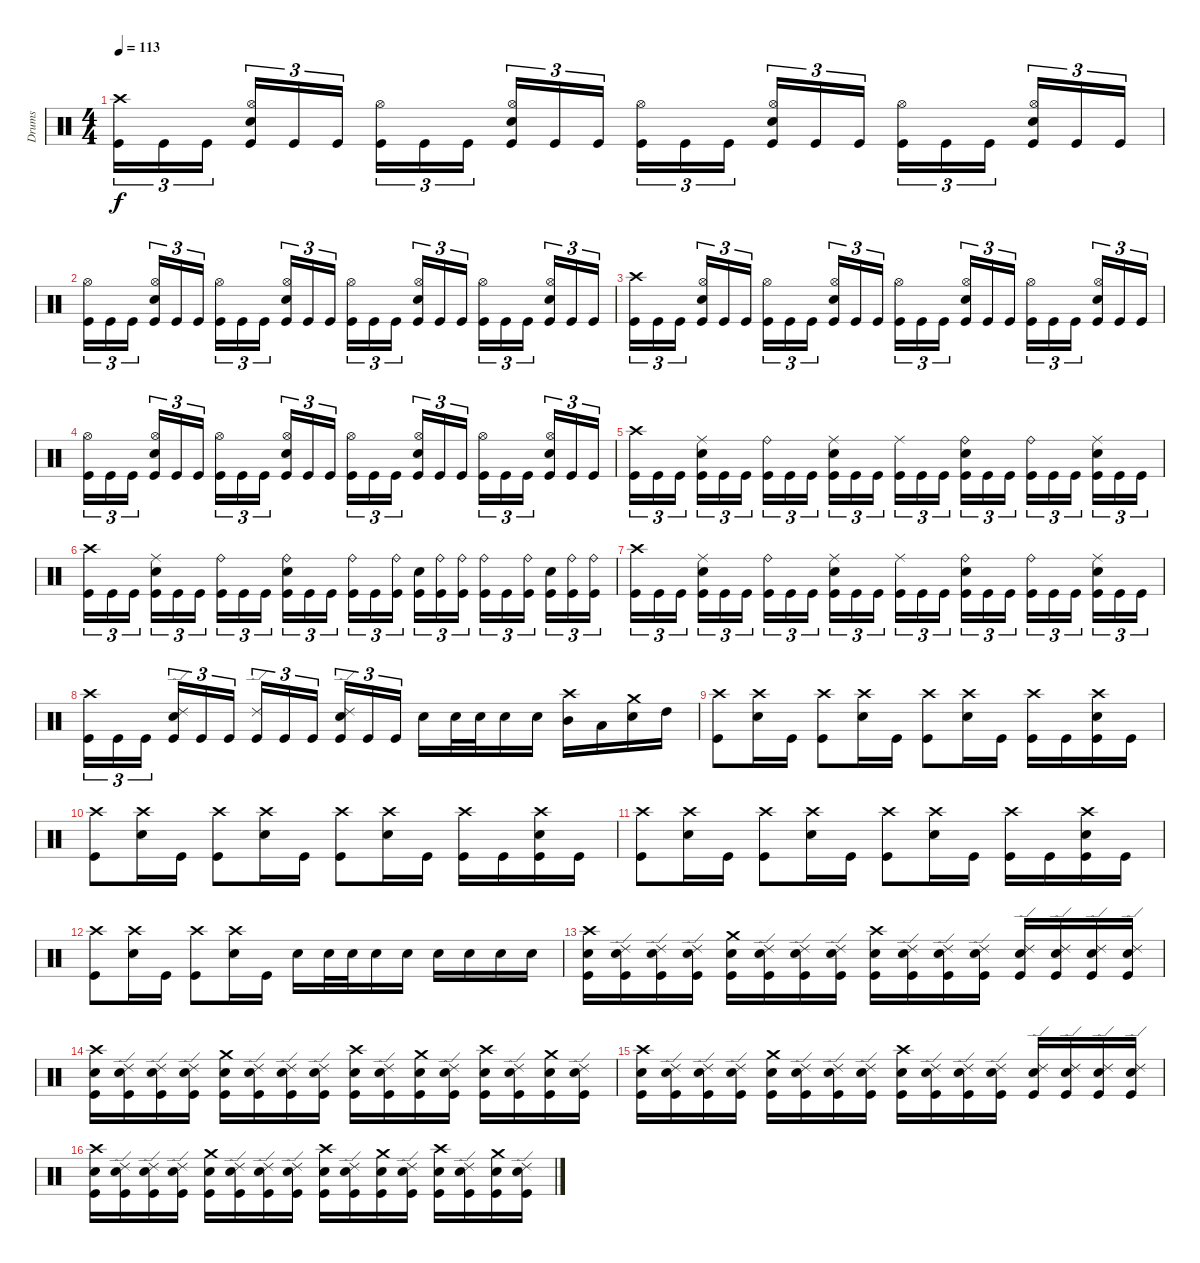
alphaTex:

\track ("Drums" "Drums") {instrument percussion}
\staff {score}
\articulation defaults
\ts (4 4)
\tempo 113
\clef neutral
\ks c
("Crash high (hit)" "Kick (hit)").16{tu (3 2) dy f} "Kick (hit)".16{tu (3 2)} "Kick (hit)".16{tu (3 2) beam splitsecondary} ("Hi-Hat (open)" "Electric Snare (hit)" "Kick (hit)").16{tu (3 2)} "Kick (hit)".16{tu (3 2)} "Kick (hit)".16{tu (3 2)} ("Hi-Hat (open)" "Kick (hit)").16{tu (3 2)} "Kick (hit)".16{tu (3 2)} "Kick (hit)".16{tu (3 2) beam splitsecondary} ("Hi-Hat (open)" "Electric Snare (hit)" "Kick (hit)").16{tu (3 2)} "Kick (hit)".16{tu (3 2)} "Kick (hit)".16{tu (3 2)} ("Hi-Hat (open)" "Kick (hit)").16{tu (3 2)} "Kick (hit)".16{tu (3 2)} "Kick (hit)".16{tu (3 2) beam splitsecondary} ("Hi-Hat (open)" "Electric Snare (hit)" "Kick (hit)").16{tu (3 2)} "Kick (hit)".16{tu (3 2)} "Kick (hit)".16{tu (3 2)} ("Hi-Hat (open)" "Kick (hit)").16{tu (3 2)} "Kick (hit)".16{tu (3 2)} "Kick (hit)".16{tu (3 2) beam splitsecondary} ("Hi-Hat (open)" "Electric Snare (hit)" "Kick (hit)").16{tu (3 2)} "Kick (hit)".16{tu (3 2)} "Kick (hit)".16{tu (3 2)} |
("Hi-Hat (open)" "Kick (hit)").16{tu (3 2)} "Kick (hit)".16{tu (3 2)} "Kick (hit)".16{tu (3 2) beam splitsecondary} ("Hi-Hat (open)" "Electric Snare (hit)" "Kick (hit)").16{tu (3 2)} "Kick (hit)".16{tu (3 2)} "Kick (hit)".16{tu (3 2)} ("Hi-Hat (open)" "Kick (hit)").16{tu (3 2)} "Kick (hit)".16{tu (3 2)} "Kick (hit)".16{tu (3 2) beam splitsecondary} ("Hi-Hat (open)" "Electric Snare (hit)" "Kick (hit)").16{tu (3 2)} "Kick (hit)".16{tu (3 2)} "Kick (hit)".16{tu (3 2)} ("Hi-Hat (open)" "Kick (hit)").16{tu (3 2)} "Kick (hit)".16{tu (3 2)} "Kick (hit)".16{tu (3 2) beam splitsecondary} ("Hi-Hat (open)" "Electric Snare (hit)" "Kick (hit)").16{tu (3 2)} "Kick (hit)".16{tu (3 2)} "Kick (hit)".16{tu (3 2)} ("Hi-Hat (open)" "Kick (hit)").16{tu (3 2)} "Kick (hit)".16{tu (3 2)} "Kick (hit)".16{tu (3 2) beam splitsecondary} ("Hi-Hat (open)" "Electric Snare (hit)" "Kick (hit)").16{tu (3 2)} "Kick (hit)".16{tu (3 2)} "Kick (hit)".16{tu (3 2)} |
("Crash high (hit)" "Kick (hit)").16{tu (3 2)} "Kick (hit)".16{tu (3 2)} "Kick (hit)".16{tu (3 2) beam splitsecondary} ("Hi-Hat (open)" "Electric Snare (hit)" "Kick (hit)").16{tu (3 2)} "Kick (hit)".16{tu (3 2)} "Kick (hit)".16{tu (3 2)} ("Hi-Hat (open)" "Kick (hit)").16{tu (3 2)} "Kick (hit)".16{tu (3 2)} "Kick (hit)".16{tu (3 2) beam splitsecondary} ("Hi-Hat (open)" "Electric Snare (hit)" "Kick (hit)").16{tu (3 2)} "Kick (hit)".16{tu (3 2)} "Kick (hit)".16{tu (3 2)} ("Hi-Hat (open)" "Kick (hit)").16{tu (3 2)} "Kick (hit)".16{tu (3 2)} "Kick (hit)".16{tu (3 2) beam splitsecondary} ("Hi-Hat (open)" "Electric Snare (hit)" "Kick (hit)").16{tu (3 2)} "Kick (hit)".16{tu (3 2)} "Kick (hit)".16{tu (3 2)} ("Hi-Hat (open)" "Kick (hit)").16{tu (3 2)} "Kick (hit)".16{tu (3 2)} "Kick (hit)".16{tu (3 2) beam splitsecondary} ("Hi-Hat (open)" "Electric Snare (hit)" "Kick (hit)").16{tu (3 2)} "Kick (hit)".16{tu (3 2)} "Kick (hit)".16{tu (3 2)} |
("Hi-Hat (open)" "Kick (hit)").16{tu (3 2)} "Kick (hit)".16{tu (3 2)} "Kick (hit)".16{tu (3 2) beam splitsecondary} ("Hi-Hat (open)" "Electric Snare (hit)" "Kick (hit)").16{tu (3 2)} "Kick (hit)".16{tu (3 2)} "Kick (hit)".16{tu (3 2)} ("Hi-Hat (open)" "Kick (hit)").16{tu (3 2)} "Kick (hit)".16{tu (3 2)} "Kick (hit)".16{tu (3 2) beam splitsecondary} ("Hi-Hat (open)" "Electric Snare (hit)" "Kick (hit)").16{tu (3 2)} "Kick (hit)".16{tu (3 2)} "Kick (hit)".16{tu (3 2)} ("Hi-Hat (open)" "Kick (hit)").16{tu (3 2)} "Kick (hit)".16{tu (3 2)} "Kick (hit)".16{tu (3 2) beam splitsecondary} ("Hi-Hat (open)" "Electric Snare (hit)" "Kick (hit)").16{tu (3 2)} "Kick (hit)".16{tu (3 2)} "Kick (hit)".16{tu (3 2)} ("Hi-Hat (open)" "Kick (hit)").16{tu (3 2)} "Kick (hit)".16{tu (3 2)} "Kick (hit)".16{tu (3 2) beam splitsecondary} ("Hi-Hat (open)" "Electric Snare (hit)" "Kick (hit)").16{tu (3 2)} "Kick (hit)".16{tu (3 2)} "Kick (hit)".16{tu (3 2)} |
("Crash high (hit)" "Kick (hit)").16{tu (3 2)} "Kick (hit)".16{tu (3 2)} "Kick (hit)".16{tu (3 2) beam splitsecondary} ("Ride (middle)" "Electric Snare (hit)" "Kick (hit)").16{tu (3 2)} "Kick (hit)".16{tu (3 2)} "Kick (hit)".16{tu (3 2)} ("Ride (bell)" "Kick (hit)").16{tu (3 2)} "Kick (hit)".16{tu (3 2)} "Kick (hit)".16{tu (3 2) beam splitsecondary} ("Ride (middle)" "Electric Snare (hit)" "Kick (hit)").16{tu (3 2)} "Kick (hit)".16{tu (3 2)} "Kick (hit)".16{tu (3 2)} ("Ride (middle)" "Kick (hit)").16{tu (3 2)} "Kick (hit)".16{tu (3 2)} "Kick (hit)".16{tu (3 2) beam splitsecondary} ("Ride (bell)" "Electric Snare (hit)" "Kick (hit)").16{tu (3 2)} "Kick (hit)".16{tu (3 2)} "Kick (hit)".16{tu (3 2)} ("Ride (bell)" "Kick (hit)").16{tu (3 2)} "Kick (hit)".16{tu (3 2)} "Kick (hit)".16{tu (3 2) beam splitsecondary} ("Ride (middle)" "Electric Snare (hit)" "Kick (hit)").16{tu (3 2)} "Kick (hit)".16{tu (3 2)} "Kick (hit)".16{tu (3 2)} |
("Crash high (hit)" "Kick (hit)").16{tu (3 2)} "Kick (hit)".16{tu (3 2)} "Kick (hit)".16{tu (3 2) beam splitsecondary} ("Ride (middle)" "Electric Snare (hit)" "Kick (hit)").16{tu (3 2)} "Kick (hit)".16{tu (3 2)} "Kick (hit)".16{tu (3 2)} ("Ride (bell)" "Kick (hit)").16{tu (3 2)} "Kick (hit)".16{tu (3 2)} "Kick (hit)".16{tu (3 2) beam splitsecondary} ("Ride (bell)" "Electric Snare (hit)" "Kick (hit)").16{tu (3 2)} "Kick (hit)".16{tu (3 2)} "Kick (hit)".16{tu (3 2)} ("Ride (bell)" "Kick (hit)").16{tu (3 2)} "Kick (hit)".16{tu (3 2)} ("Ride (bell)" "Kick (hit)").16{tu (3 2) beam splitsecondary} ("Electric Snare (hit)" "Kick (hit)").16{tu (3 2)} ("Ride (bell)" "Kick (hit)").16{tu (3 2)} ("Ride (bell)" "Kick (hit)").16{tu (3 2)} ("Ride (bell)" "Kick (hit)").16{tu (3 2)} "Kick (hit)".16{tu (3 2)} ("Ride (bell)" "Kick (hit)").16{tu (3 2) beam splitsecondary} ("Electric Snare (hit)" "Kick (hit)").16{tu (3 2)} ("Ride (bell)" "Kick (hit)").16{tu (3 2)} ("Ride (bell)" "Kick (hit)").16{tu (3 2)} |
("Crash high (hit)" "Kick (hit)").16{tu (3 2)} "Kick (hit)".16{tu (3 2)} "Kick (hit)".16{tu (3 2) beam splitsecondary} ("Ride (middle)" "Electric Snare (hit)" "Kick (hit)").16{tu (3 2)} "Kick (hit)".16{tu (3 2)} "Kick (hit)".16{tu (3 2)} ("Ride (bell)" "Kick (hit)").16{tu (3 2)} "Kick (hit)".16{tu (3 2)} "Kick (hit)".16{tu (3 2) beam splitsecondary} ("Ride (middle)" "Electric Snare (hit)" "Kick (hit)").16{tu (3 2)} "Kick (hit)".16{tu (3 2)} "Kick (hit)".16{tu (3 2)} ("Ride (middle)" "Kick (hit)").16{tu (3 2)} "Kick (hit)".16{tu (3 2)} "Kick (hit)".16{tu (3 2) beam splitsecondary} ("Ride (bell)" "Electric Snare (hit)" "Kick (hit)").16{tu (3 2)} "Kick (hit)".16{tu (3 2)} "Kick (hit)".16{tu (3 2)} ("Ride (bell)" "Kick (hit)").16{tu (3 2)} "Kick (hit)".16{tu (3 2)} "Kick (hit)".16{tu (3 2) beam splitsecondary} ("Ride (middle)" "Electric Snare (hit)" "Kick (hit)").16{tu (3 2)} "Kick (hit)".16{tu (3 2)} "Kick (hit)".16{tu (3 2)} |
("Crash high (hit)" "Kick (hit)").16{tu (3 2)} "Kick (hit)".16{tu (3 2)} "Kick (hit)".16{tu (3 2) beam splitsecondary} ("Ride (edge) 2" "Electric Snare (hit)" "Kick (hit)").16{tu (3 2)} "Kick (hit)".16{tu (3 2)} "Kick (hit)".16{tu (3 2)} ("Ride (edge) 2" "Kick (hit)").16{tu (3 2)} "Kick (hit)".16{tu (3 2)} "Kick (hit)".16{tu (3 2) beam splitsecondary} ("Ride (edge) 2" "Electric Snare (hit)" "Kick (hit)").16{tu (3 2)} "Kick (hit)".16{tu (3 2)} "Kick (hit)".16{tu (3 2)} "Electric Snare (hit)".16 "Electric Snare (hit)".32 "Electric Snare (hit)".32 "Electric Snare (hit)".16 "Electric Snare (hit)".16 ("Crash high (hit)" "Mid Tom (hit)").16 "Low Tom (hit)".16 ("Crash medium (hit)" "Electric Snare (hit)").16 "High Tom (hit)".16 |
("Crash high (hit)" "Kick (hit)").8 ("Crash high (hit)" "Electric Snare (hit)").16 "Kick (hit)".16 ("Crash high (hit)" "Kick (hit)").8 ("Crash high (hit)" "Electric Snare (hit)").16 "Kick (hit)".16 ("Crash high (hit)" "Kick (hit)").8 ("Crash high (hit)" "Electric Snare (hit)").16 "Kick (hit)".16 ("Crash high (hit)" "Kick (hit)").16 "Kick (hit)".16 ("Crash high (hit)" "Electric Snare (hit)" "Kick (hit)").16 "Kick (hit)".16 |
("Crash high (hit)" "Kick (hit)").8 ("Crash high (hit)" "Electric Snare (hit)").16 "Kick (hit)".16 ("Crash high (hit)" "Kick (hit)").8 ("Crash high (hit)" "Electric Snare (hit)").16 "Kick (hit)".16 ("Crash high (hit)" "Kick (hit)").8 ("Crash high (hit)" "Electric Snare (hit)").16 "Kick (hit)".16 ("Crash high (hit)" "Kick (hit)").16 "Kick (hit)".16 ("Crash high (hit)" "Electric Snare (hit)" "Kick (hit)").16 "Kick (hit)".16 |
("Crash high (hit)" "Kick (hit)").8 ("Crash high (hit)" "Electric Snare (hit)").16 "Kick (hit)".16 ("Crash high (hit)" "Kick (hit)").8 ("Crash high (hit)" "Electric Snare (hit)").16 "Kick (hit)".16 ("Crash high (hit)" "Kick (hit)").8 ("Crash high (hit)" "Electric Snare (hit)").16 "Kick (hit)".16 ("Crash high (hit)" "Kick (hit)").16 "Kick (hit)".16 ("Crash high (hit)" "Electric Snare (hit)" "Kick (hit)").16 "Kick (hit)".16 |
("Crash high (hit)" "Kick (hit)").8 ("Crash high (hit)" "Electric Snare (hit)").16 "Kick (hit)".16 ("Crash high (hit)" "Kick (hit)").8 ("Crash high (hit)" "Electric Snare (hit)").16 "Kick (hit)".16 "Electric Snare (hit)".16 "Electric Snare (hit)".32 "Electric Snare (hit)".32 "Electric Snare (hit)".16 "Electric Snare (hit)".16 "Electric Snare (hit)".16 "Electric Snare (hit)".16 "Electric Snare (hit)".16 "Electric Snare (hit)".16 |
("Crash high (hit)" "Electric Snare (hit)" "Kick (hit)").16 ("Ride (edge) 2" "Electric Snare (hit)" "Kick (hit)").16 ("Ride (edge) 2" "Electric Snare (hit)" "Kick (hit)").16 ("Ride (edge) 2" "Electric Snare (hit)" "Kick (hit)").16 ("Crash medium (hit)" "Electric Snare (hit)" "Kick (hit)").16 ("Ride (edge) 2" "Electric Snare (hit)" "Kick (hit)").16 ("Ride (edge) 2" "Electric Snare (hit)" "Kick (hit)").16 ("Ride (edge) 2" "Electric Snare (hit)" "Kick (hit)").16 ("Crash high (hit)" "Electric Snare (hit)" "Kick (hit)").16 ("Ride (edge) 2" "Electric Snare (hit)" "Kick (hit)").16 ("Ride (edge) 2" "Electric Snare (hit)" "Kick (hit)").16 ("Ride (edge) 2" "Electric Snare (hit)" "Kick (hit)").16 ("Ride (edge) 2" "Electric Snare (hit)" "Kick (hit)").16 ("Ride (edge) 2" "Electric Snare (hit)" "Kick (hit)").16 ("Ride (edge) 2" "Electric Snare (hit)" "Kick (hit)").16 ("Ride (edge) 2" "Electric Snare (hit)" "Kick (hit)").16 |
("Crash high (hit)" "Electric Snare (hit)" "Kick (hit)").16 ("Ride (edge) 2" "Electric Snare (hit)" "Kick (hit)").16 ("Ride (edge) 2" "Electric Snare (hit)" "Kick (hit)").16 ("Ride (edge) 2" "Electric Snare (hit)" "Kick (hit)").16 ("Crash medium (hit)" "Electric Snare (hit)" "Kick (hit)").16 ("Ride (edge) 2" "Electric Snare (hit)" "Kick (hit)").16 ("Ride (edge) 2" "Electric Snare (hit)" "Kick (hit)").16 ("Ride (edge) 2" "Electric Snare (hit)" "Kick (hit)").16 ("Crash high (hit)" "Electric Snare (hit)" "Kick (hit)").16 ("Ride (edge) 2" "Electric Snare (hit)" "Kick (hit)").16 ("Crash medium (hit)" "Electric Snare (hit)" "Kick (hit)").16 ("Ride (edge) 2" "Electric Snare (hit)" "Kick (hit)").16 ("Crash high (hit)" "Electric Snare (hit)" "Kick (hit)").16 ("Ride (edge) 2" "Electric Snare (hit)" "Kick (hit)").16 ("Crash medium (hit)" "Electric Snare (hit)" "Kick (hit)").16 ("Ride (edge) 2" "Electric Snare (hit)" "Kick (hit)").16 |
("Crash high (hit)" "Electric Snare (hit)" "Kick (hit)").16 ("Ride (edge) 2" "Electric Snare (hit)" "Kick (hit)").16 ("Ride (edge) 2" "Electric Snare (hit)" "Kick (hit)").16 ("Ride (edge) 2" "Electric Snare (hit)" "Kick (hit)").16 ("Crash medium (hit)" "Electric Snare (hit)" "Kick (hit)").16 ("Ride (edge) 2" "Electric Snare (hit)" "Kick (hit)").16 ("Ride (edge) 2" "Electric Snare (hit)" "Kick (hit)").16 ("Ride (edge) 2" "Electric Snare (hit)" "Kick (hit)").16 ("Crash high (hit)" "Electric Snare (hit)" "Kick (hit)").16 ("Ride (edge) 2" "Electric Snare (hit)" "Kick (hit)").16 ("Ride (edge) 2" "Electric Snare (hit)" "Kick (hit)").16 ("Ride (edge) 2" "Electric Snare (hit)" "Kick (hit)").16 ("Ride (edge) 2" "Electric Snare (hit)" "Kick (hit)").16 ("Ride (edge) 2" "Electric Snare (hit)" "Kick (hit)").16 ("Ride (edge) 2" "Electric Snare (hit)" "Kick (hit)").16 ("Ride (edge) 2" "Electric Snare (hit)" "Kick (hit)").16 |
("Crash high (hit)" "Electric Snare (hit)" "Kick (hit)").16 ("Ride (edge) 2" "Electric Snare (hit)" "Kick (hit)").16 ("Ride (edge) 2" "Electric Snare (hit)" "Kick (hit)").16 ("Ride (edge) 2" "Electric Snare (hit)" "Kick (hit)").16 ("Crash medium (hit)" "Electric Snare (hit)" "Kick (hit)").16 ("Ride (edge) 2" "Electric Snare (hit)" "Kick (hit)").16 ("Ride (edge) 2" "Electric Snare (hit)" "Kick (hit)").16 ("Ride (edge) 2" "Electric Snare (hit)" "Kick (hit)").16 ("Crash high (hit)" "Electric Snare (hit)" "Kick (hit)").16 ("Ride (edge) 2" "Electric Snare (hit)" "Kick (hit)").16 ("Crash medium (hit)" "Electric Snare (hit)" "Kick (hit)").16 ("Ride (edge) 2" "Electric Snare (hit)" "Kick (hit)").16 ("Crash high (hit)" "Electric Snare (hit)" "Kick (hit)").16 ("Ride (edge) 2" "Electric Snare (hit)" "Kick (hit)").16 ("Crash medium (hit)" "Electric Snare (hit)" "Kick (hit)").16 ("Ride (edge) 2" "Electric Snare (hit)" "Kick (hit)").16
